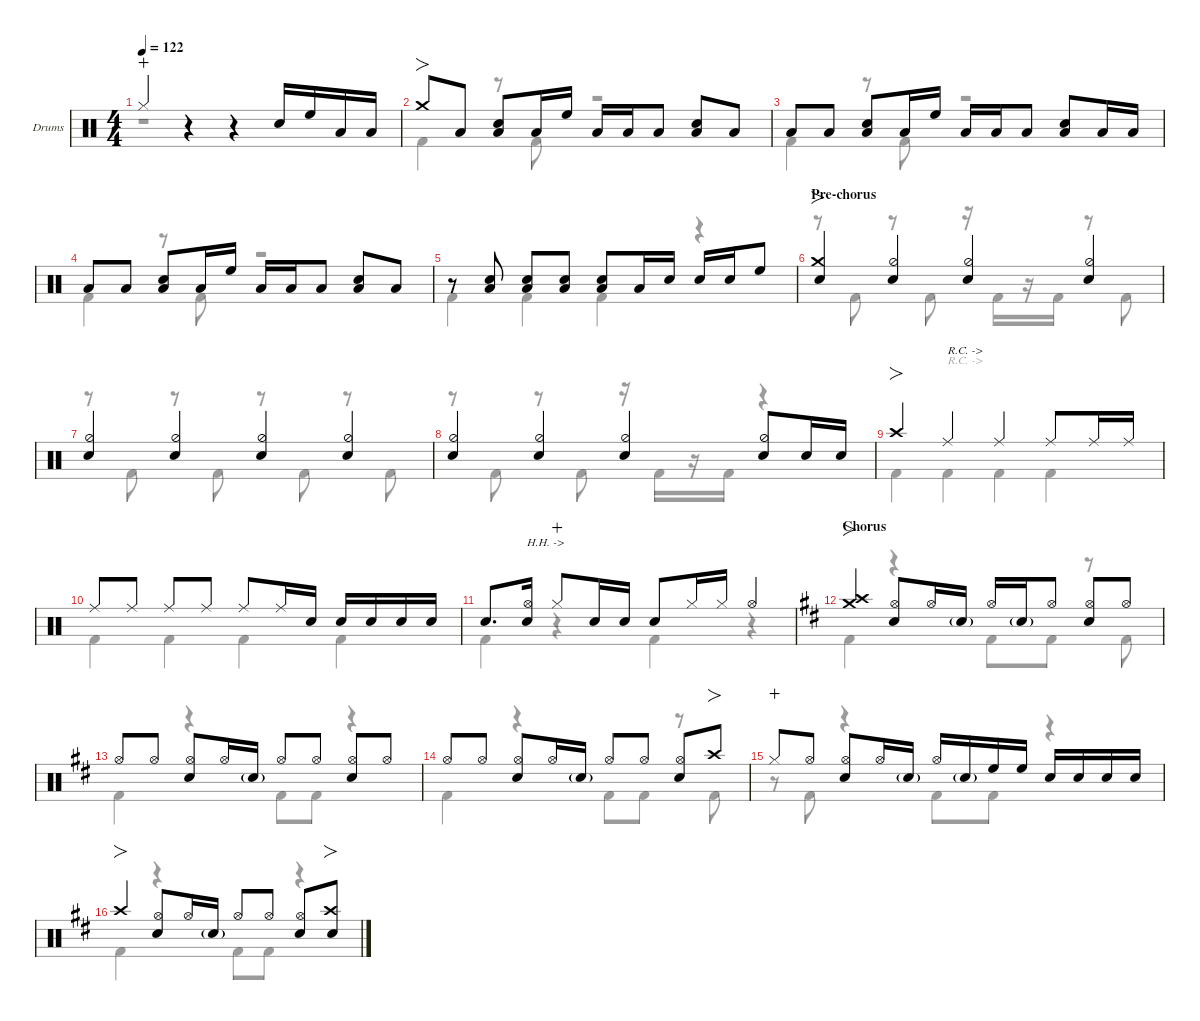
\defaultSystemsLayout 4
\hideDynamics
\bracketExtendMode nobrackets
\firstSystemTrackNameOrientation horizontal
\track ("Drums" "Drums") {defaultSystemsLayout 4 instrument percussion}
\staff {score}
\articulation defaults
\voice
\ts (4 4)
\tempo 122
\clef neutral
\scale
0.244461
\ks c "Hi-Hat (closed)".4{dy mp wahc beam Up}
r.4{beam Up} r.4{beam Up} "Snare (hit) 2".16{dy f beam Up} "High Floor Tom (hit)".16{beam Up} "Low Tom (hit)".16{beam Up} "Low Tom (hit)".16{beam Up} |
\scale
0.266618 "Crash medium (hit)".8{fo beam Up} "Low Tom (hit)".8{beam Up beam split} ("Snare (hit) 2" "Low Tom (hit)").8{beam Up beam merge} "Low Tom (hit)".16{beam Up} "High Floor Tom (hit)".16{beam Up} "Low Tom (hit)".16{beam Up} "Low Tom (hit)".16{dy mf beam Up} "Low Tom (hit)".8{dy f beam Up beam split} ("Snare (hit) 2" "Low Tom (hit)").8{beam Up} "Low Tom (hit)".8{beam Up} |
\scale
0.244461 "Low Tom (hit)".8{beam Up} "Low Tom (hit)".8{beam Up beam split} ("Snare (hit) 2" "Low Tom (hit)").8{beam Up beam merge} "Low Tom (hit)".16{beam Up} "High Floor Tom (hit)".16{beam Up} "Low Tom (hit)".16{beam Up} "Low Tom (hit)".16{dy mf beam Up} "Low Tom (hit)".8{dy f beam Up beam split} ("Snare (hit) 2" "Low Tom (hit)").8{beam Up} "Low Tom (hit)".16{beam Up} "Low Tom (hit)".16{beam Up} |
\scale
0.24446 "Low Tom (hit)".8{beam Up} "Low Tom (hit)".8{beam Up beam split} ("Snare (hit) 2" "Low Tom (hit)").8{beam Up beam merge} "Low Tom (hit)".16{beam Up} "High Floor Tom (hit)".16{beam Up} "Low Tom (hit)".16{beam Up} "Low Tom (hit)".16{dy mf beam Up} "Low Tom (hit)".8{dy f beam Up beam split} ("Snare (hit) 2" "Low Tom (hit)").8{beam Up} "Low Tom (hit)".8{beam Up} |
\scale
0.244461 r.8{beam Up} ("Snare (hit) 2" "Low Tom (hit)").8{beam Up} ("Snare (hit) 2" "Low Tom (hit)").8{beam Up} ("Snare (hit) 2" "Low Tom (hit)").8{beam Up} ("Snare (hit) 2" "Low Tom (hit)").8{beam Up} "Low Tom (hit)".16{beam Up} "Snare (hit) 2".16{beam Up beam split} "Snare (hit) 2".16{beam Up} "Snare (hit) 2".16{beam Up} "High Floor Tom (hit)".8{beam Up} |
\section ("" "Pre-chorus")
\scale
0.346632 ("Crash medium (hit)" "Snare (hit) 2").4{fo beam Up} ("Hi-Hat (half)" "Snare (hit) 2").4{beam Up} ("Hi-Hat (half)" "Snare (hit) 2").4{beam Up} ("Hi-Hat (half)" "Snare (hit) 2").4{beam Up} |
\scale
0.324474 ("Hi-Hat (half)" "Snare (hit) 2").4{beam Up} ("Hi-Hat (half)" "Snare (hit) 2").4{beam Up} ("Hi-Hat (half)" "Snare (hit) 2").4{beam Up} ("Hi-Hat (half)" "Snare (hit) 2").4{beam Up} |
\scale
0.328895 ("Hi-Hat (half)" "Snare (hit) 2").4{beam Up} ("Hi-Hat (half)" "Snare (hit) 2").4{beam Up} ("Hi-Hat (half)" "Snare (hit) 2").4{beam Up} ("Hi-Hat (half)" "Snare (hit) 2").8{beam Up} "Snare (hit) 2".16{beam Up} "Snare (hit) 2".16{beam Up} |
\scale
0.346632 "Crash high (hit)".4{fo beam Up} "Ride (middle)".4{txt "R.C. ->" beam Up} "Ride (middle)".4{beam Up} "Ride (middle)".8{beam Up} "Ride (middle)".16{beam Up} "Ride (middle)".16{dy mf beam Up} |
\scale
0.324474 "Ride (middle)".8{dy f beam Up} "Ride (middle)".8{dy mf beam Up} "Ride (middle)".8{dy f beam Up} "Ride (middle)".8{dy mf beam Up} "Ride (middle)".8{dy f beam Up} "Ride (middle)".16{dy mf beam Up} "Snare (hit) 2".16{beam Up beam split} "Snare (hit) 2".16{dy f beam Up} "Snare (hit) 2".16{dy mf beam Up beam merge} "Snare (hit) 2".16{dy f beam Up} "Snare (hit) 2".16{dy mf beam Up beam split} |
\scale
0.328895 "Snare (hit) 2".8{d dy f beam Up} ("Snare (hit) 2" "Hi-Hat (open)").16{txt "H.H. ->" beam Up beam split} "Hi-Hat (closed)".8{dy mp wahc beam Up} "Snare (hit) 2".16{dy f beam Up} "Snare (hit) 2".16{dy mf beam Up} "Snare (hit) 2".8{dy f beam Up} "Hi-Hat (closed)".16{beam Up} "Hi-Hat (closed)".16{beam Up} "Hi-Hat (open)".4{beam Up} |
\section ("" "Chorus")
\scale
0.266618
\ks d
("Crash high (hit)"{acc forcenatural} "Crash medium (hit)"{acc forcenatural}).4{fo beam Up} ("Hi-Hat (open)"{acc forcenatural} "Snare (hit) 2"{acc forcenatural}).8{beam Up} "Hi-Hat (open)"{acc forcenatural}.16{dy mf beam Up} "Snare (hit) 2"{g acc forcenatural}.16{beam Up} "Hi-Hat (open)"{acc forcenatural}.16{dy f beam Up} "Snare (hit) 2"{g acc forcenatural}.16{dy mf beam Up} "Hi-Hat (open)"{acc forcenatural}.8{beam Up beam split} ("Hi-Hat (open)"{acc forcenatural} "Snare (hit) 2"{acc forcenatural}).8{dy f beam Up} "Hi-Hat (open)"{acc forcenatural}.8{dy mf beam Up} |
\scale
0.244461 "Hi-Hat (open)"{acc forcenatural}.8{dy f beam Up} "Hi-Hat (open)"{acc forcenatural}.8{dy mf beam Up beam split} ("Hi-Hat (open)"{acc forcenatural} "Snare (hit) 2"{acc forcenatural}).8{dy f beam Up} "Hi-Hat (open)"{acc forcenatural}.16{dy mf beam Up} "Snare (hit) 2"{g acc forcenatural}.16{beam Up} "Hi-Hat (open)"{acc forcenatural}.8{dy f beam Up} "Hi-Hat (open)"{acc forcenatural}.8{dy mf beam Up} ("Hi-Hat (open)"{acc forcenatural} "Snare (hit) 2"{acc forcenatural}).8{dy f beam Up} "Hi-Hat (open)"{acc forcenatural}.8{dy mf beam Up} |
\scale
0.24446 "Hi-Hat (open)"{acc forcenatural}.8{dy f beam Up} "Hi-Hat (open)"{acc forcenatural}.8{dy mf beam Up beam split} ("Hi-Hat (open)"{acc forcenatural} "Snare (hit) 2"{acc forcenatural}).8{dy f beam Up} "Hi-Hat (open)"{acc forcenatural}.16{dy mf beam Up} "Snare (hit) 2"{g acc forcenatural}.16{beam Up} "Hi-Hat (open)"{acc forcenatural}.8{dy f beam Up} "Hi-Hat (open)"{acc forcenatural}.8{dy mf beam Up beam split} ("Hi-Hat (open)"{acc forcenatural} "Snare (hit) 2"{acc forcenatural}).8{dy f beam Up} "Crash high (hit)"{acc forcenatural}.8{fo beam Up} |
\scale
0.244461 "Hi-Hat (closed)"{acc forcenatural}.8{dy mp wahc beam Up} "Hi-Hat (open)"{acc forcenatural}.8{dy mf beam Up beam split} ("Hi-Hat (open)"{acc forcenatural} "Snare (hit) 2"{acc forcenatural}).8{dy f beam Up} "Hi-Hat (open)"{acc forcenatural}.16{dy mf beam Up} "Snare (hit) 2"{g acc forcenatural}.16{beam Up} "Hi-Hat (open)"{acc forcenatural}.16{dy f beam Up} "Snare (hit) 2"{g acc forcenatural}.16{dy mf beam Up} "High Floor Tom (hit)"{acc forcenatural}.16{dy f beam Up beam merge} "High Floor Tom (hit)"{acc forcenatural}.16{beam Up beam split} "Snare (hit) 2"{acc forcenatural}.16{beam Up} "Snare (hit) 2"{acc forcenatural}.16{dy mf beam Up} "Snare (hit) 2"{acc forcenatural}.16{dy f beam Up} "Snare (hit) 2"{acc forcenatural}.16{dy mf beam Up} |
\scale
0.511079 "Crash high (hit)"{acc forcenatural}.4{fo dy f beam Up} ("Hi-Hat (open)"{acc forcenatural} "Snare (hit) 2"{acc forcenatural}).8{beam Up} "Hi-Hat (open)"{acc forcenatural}.16{dy mf beam Up} "Snare (hit) 2"{g acc forcenatural}.16{beam Up} "Hi-Hat (open)"{acc forcenatural}.8{dy f beam Up} "Hi-Hat (open)"{acc forcenatural}.8{dy mf beam Up} ("Hi-Hat (open)"{acc forcenatural} "Snare (hit) 2"{acc forcenatural}).8{dy f beam Up} ("Snare (hit) 2"{acc forcenatural} "Crash high (hit)"{acc forcenatural}).8{fo beam Up}
\voice
\clef neutral
\ottava regular
\simile none
\scale
0.244461
\ks c
r.1{dy f beam Down} |
\scale
0.266618 "Kick (hit) 2".4{beam Down} r.8{beam Down} "Kick (hit) 2".8{beam Down} r.2{beam Down} |
\scale
0.244461 "Kick (hit) 2".4{beam Down} r.8{beam Down} "Kick (hit) 2".8{beam Down} r.2{beam Down} |
\scale
0.24446 "Kick (hit) 2".4{beam Down} r.8{beam Down} "Kick (hit) 2".8{beam Down} r.2{beam Down} |
\scale
0.244461 "Kick (hit) 2".4{beam Down} "Kick (hit) 2".4{beam Down} "Kick (hit) 2".4{beam Down} r.4{beam Down} |
\scale
0.346632 r.8{beam Down} "Kick (hit) 2".8{beam Down} r.8{beam Down} "Kick (hit) 2".8{beam Down} r.16{beam Down} "Kick (hit) 2".16{beam Down} r.16{beam Down} "Kick (hit) 2".16{beam Down beam split} r.8{beam Down beam split} "Kick (hit) 2".8{beam Down} |
\scale
0.324474 r.8{beam Down} "Kick (hit) 2".8{beam Down} r.8{beam Down} "Kick (hit) 2".8{beam Down} r.8{beam Down} "Kick (hit) 2".8{beam Down} r.8{beam Down} "Kick (hit) 2".8{beam Down} |
\scale
0.328895 r.8{beam Down} "Kick (hit) 2".8{beam Down} r.8{beam Down} "Kick (hit) 2".8{beam Down} r.16{beam Down} "Kick (hit) 2".16{beam Down} r.16{beam Down} "Kick (hit) 2".16{beam Down beam split} r.4{beam Down beam split} |
\scale
0.346632 "Kick (hit) 2".4{beam Down} "Kick (hit) 2".4{txt "R.C. ->" beam Down} "Kick (hit) 2".4{beam Down} "Kick (hit) 2".4{beam Down} |
\scale
0.324474 "Kick (hit) 2".4{beam Down} "Kick (hit) 2".4{beam Down} "Kick (hit) 2".4{beam Down} "Kick (hit) 2".4{beam Down} |
\scale
0.328895 "Kick (hit) 2".4{beam Down} r.4{beam Down} "Kick (hit) 2".4{beam Down} r.4{beam Down} |
\scale
0.266618
\ks d "Kick (hit) 2"{acc forcenatural}.4{beam Down}
r.4{beam Down} "Kick (hit) 2"{acc forcenatural}.8{beam Down} "Kick (hit) 2"{acc forcenatural}.8{beam Down} r.8{beam Down} "Kick (hit) 2"{acc forcenatural}.8{beam Down} |
\scale
0.244461 "Kick (hit) 2"{acc forcenatural}.4{beam Down} r.4{beam Down} "Kick (hit) 2"{acc forcenatural}.8{beam Down} "Kick (hit) 2"{acc forcenatural}.8{beam Down} r.4{beam Down} |
\scale
0.24446 "Kick (hit) 2"{acc forcenatural}.4{beam Down} r.4{beam Down} "Kick (hit) 2"{acc forcenatural}.8{beam Down} "Kick (hit) 2"{acc forcenatural}.8{beam Down} r.8{beam Down} "Kick (hit) 2"{acc forcenatural}.8{beam Down} |
\scale
0.244461 r.8{beam Down} "Kick (hit) 2"{acc forcenatural}.8{beam Down} r.4{beam Down} "Kick (hit) 2"{acc forcenatural}.8{beam Down} "Kick (hit) 2"{acc forcenatural}.8{beam Down} r.4{beam Down} |
\scale
0.511079 "Kick (hit) 2"{acc forcenatural}.4{beam Down} r.4{beam Down} "Kick (hit) 2"{acc forcenatural}.8{beam Down} "Kick (hit) 2"{acc forcenatural}.8{beam Down} r.4{beam Down}
